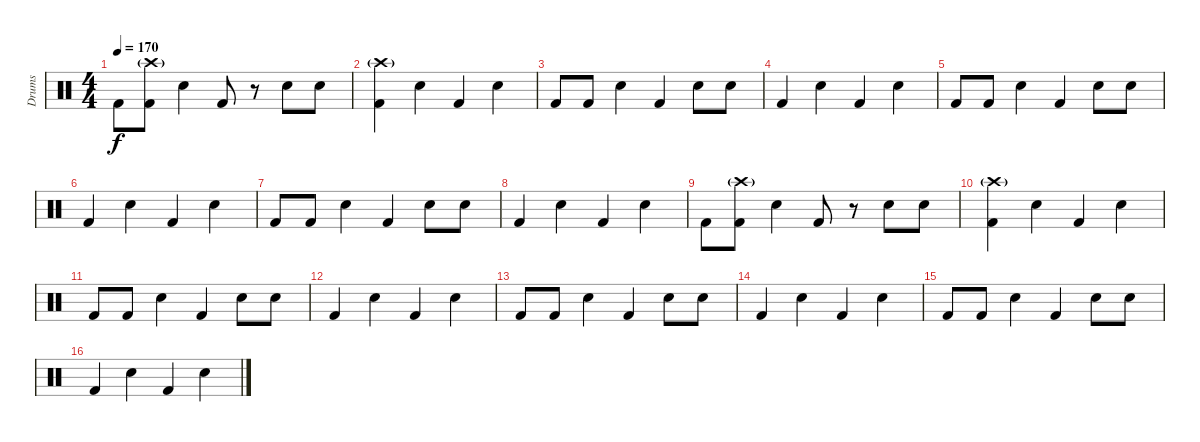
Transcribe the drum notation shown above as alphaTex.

\track ("Drums" "Drums") {instrument percussion}
\staff {score}
\articulation defaults
\ts (4 4)
\tempo 170
\clef neutral
\ks c "Kick (hit) 2".8{dy f}
("Crash high (hit)"{g} "Kick (hit) 2").8 "Hand Clap (hit)".4 "Kick (hit) 2".8 r.8 "Hand Clap (hit)".8 "Hand Clap (hit)".8 |
("Crash high (hit)"{g} "Kick (hit) 2").4 "Hand Clap (hit)".4 "Kick (hit) 2".4 "Hand Clap (hit)".4 |
"Kick (hit) 2".8 "Kick (hit) 2".8 "Hand Clap (hit)".4 "Kick (hit) 2".4 "Hand Clap (hit)".8 "Hand Clap (hit)".8 |
"Kick (hit) 2".4 "Hand Clap (hit)".4 "Kick (hit) 2".4 "Hand Clap (hit)".4 |
"Kick (hit) 2".8 "Kick (hit) 2".8 "Hand Clap (hit)".4 "Kick (hit) 2".4 "Hand Clap (hit)".8 "Hand Clap (hit)".8 |
"Kick (hit) 2".4 "Hand Clap (hit)".4 "Kick (hit) 2".4 "Hand Clap (hit)".4 |
"Kick (hit) 2".8 "Kick (hit) 2".8 "Hand Clap (hit)".4 "Kick (hit) 2".4 "Hand Clap (hit)".8 "Hand Clap (hit)".8 |
"Kick (hit) 2".4 "Hand Clap (hit)".4 "Kick (hit) 2".4 "Hand Clap (hit)".4 |
"Kick (hit) 2".8 ("Crash high (hit)"{g} "Kick (hit) 2").8 "Hand Clap (hit)".4 "Kick (hit) 2".8 r.8 "Hand Clap (hit)".8 "Hand Clap (hit)".8 |
("Crash high (hit)"{g} "Kick (hit) 2").4 "Hand Clap (hit)".4 "Kick (hit) 2".4 "Hand Clap (hit)".4 |
"Kick (hit) 2".8 "Kick (hit) 2".8 "Hand Clap (hit)".4 "Kick (hit) 2".4 "Hand Clap (hit)".8 "Hand Clap (hit)".8 |
"Kick (hit) 2".4 "Hand Clap (hit)".4 "Kick (hit) 2".4 "Hand Clap (hit)".4 |
"Kick (hit) 2".8 "Kick (hit) 2".8 "Hand Clap (hit)".4 "Kick (hit) 2".4 "Hand Clap (hit)".8 "Hand Clap (hit)".8 |
"Kick (hit) 2".4 "Hand Clap (hit)".4 "Kick (hit) 2".4 "Hand Clap (hit)".4 |
"Kick (hit) 2".8 "Kick (hit) 2".8 "Hand Clap (hit)".4 "Kick (hit) 2".4 "Hand Clap (hit)".8 "Hand Clap (hit)".8 |
"Kick (hit) 2".4 "Hand Clap (hit)".4 "Kick (hit) 2".4 "Hand Clap (hit)".4
